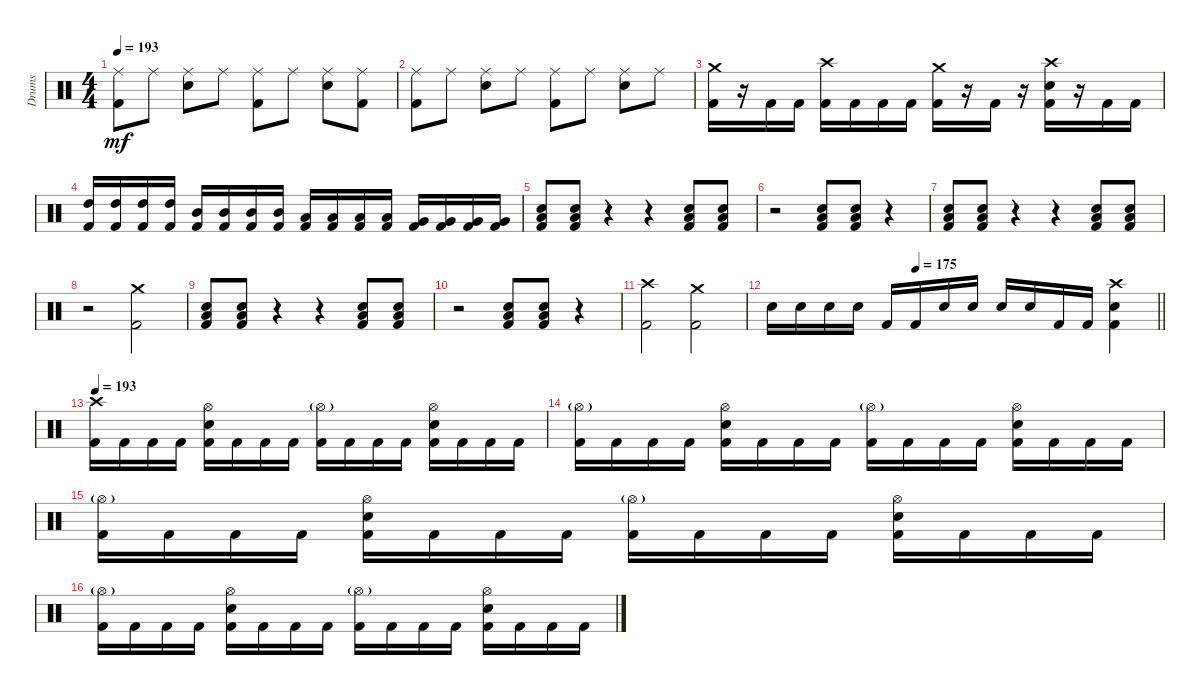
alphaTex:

\track ("Drums" "Drums") {instrument percussion}
\staff {score}
\articulation defaults
\ts (4 4)
\tempo 193
\clef neutral
\ks c
("Ride (middle)" "Kick (hit) 2").8{dy mf} "Ride (middle)".8 ("Ride (middle)" "Electric Snare (hit)").8 "Ride (middle)".8 ("Ride (middle)" "Kick (hit) 2").8 "Ride (middle)".8 ("Ride (middle)" "Electric Snare (hit)").8 ("Ride (middle)" "Kick (hit) 2").8 |
("Ride (middle)" "Kick (hit) 2").8 "Ride (middle)".8 ("Ride (middle)" "Electric Snare (hit)").8 "Ride (middle)".8 ("Ride (middle)" "Kick (hit) 2").8 "Ride (middle)".8 ("Ride (middle)" "Electric Snare (hit)").8 "Ride (middle)".8 |
("Crash medium (hit)" "Kick (hit) 2").16 r.16 "Kick (hit) 2".16 "Kick (hit) 2".16 ("Crash high (hit)" "Kick (hit) 2").16 "Kick (hit) 2".16 "Kick (hit) 2".16 "Kick (hit) 2".16 ("Crash medium (hit)" "Kick (hit) 2").16 r.16 "Kick (hit) 2".16 r.16 ("Crash high (hit)" "Electric Snare (hit)" "Kick (hit) 2").16 r.16 "Kick (hit) 2".16 "Kick (hit) 2".16 |
("High Tom (hit)" "Kick (hit) 2").16 ("High Tom (hit)" "Kick (hit) 2").16 ("High Tom (hit)" "Kick (hit) 2").16 ("High Tom (hit)" "Kick (hit) 2").16 ("Mid Tom (hit)" "Kick (hit) 2").16 ("Mid Tom (hit)" "Kick (hit) 2").16 ("Mid Tom (hit)" "Kick (hit) 2").16 ("Mid Tom (hit)" "Kick (hit) 2").16 ("Low Tom (hit)" "Kick (hit) 2").16 ("Low Tom (hit)" "Kick (hit) 2").16 ("Low Tom (hit)" "Kick (hit) 2").16 ("Low Tom (hit)" "Kick (hit) 2").16 ("Very Low Tom (hit)" "Kick (hit) 2").16 ("Very Low Tom (hit)" "Kick (hit) 2").16 ("Very Low Tom (hit)" "Kick (hit) 2").16 ("Very Low Tom (hit)" "Kick (hit) 2").16 |
("Low Tom (hit)" "Electric Snare (hit)" "Kick (hit) 2").8 ("Low Tom (hit)" "Electric Snare (hit)" "Kick (hit) 2").8 r.4 r.4 ("Low Tom (hit)" "Electric Snare (hit)" "Kick (hit) 2").8 ("Low Tom (hit)" "Electric Snare (hit)" "Kick (hit) 2").8 |
r.2 ("Low Tom (hit)" "Electric Snare (hit)" "Kick (hit) 2").8 ("Low Tom (hit)" "Electric Snare (hit)" "Kick (hit) 2").8 r.4 |
("Low Tom (hit)" "Electric Snare (hit)" "Kick (hit) 2").8 ("Low Tom (hit)" "Electric Snare (hit)" "Kick (hit) 2").8 r.4 r.4 ("Low Tom (hit)" "Electric Snare (hit)" "Kick (hit) 2").8 ("Low Tom (hit)" "Electric Snare (hit)" "Kick (hit) 2").8 |
r.2 ("Crash medium (hit)" "Kick (hit) 2").2 |
("Low Tom (hit)" "Electric Snare (hit)" "Kick (hit) 2").8 ("Low Tom (hit)" "Electric Snare (hit)" "Kick (hit) 2").8 r.4 r.4 ("Low Tom (hit)" "Electric Snare (hit)" "Kick (hit) 2").8 ("Low Tom (hit)" "Electric Snare (hit)" "Kick (hit) 2").8 |
r.2 ("Low Tom (hit)" "Electric Snare (hit)" "Kick (hit) 2").8 ("Low Tom (hit)" "Electric Snare (hit)" "Kick (hit) 2").8 r.4 |
("Crash high (hit)" "Kick (hit) 2").2 ("Crash medium (hit)" "Kick (hit) 2").2 |
\tempo (175 0.375)
\barLineRight lightlight "Electric Snare (hit)".16 "Electric Snare (hit)".16 "Electric Snare (hit)".16 "Electric Snare (hit)".16 "Kick (hit) 2".16 "Kick (hit) 2".16 "Electric Snare (hit)".16 "Electric Snare (hit)".16 "Electric Snare (hit)".16 "Electric Snare (hit)".16 "Kick (hit) 2".16 "Kick (hit) 2".16
("Crash high (hit)" "Electric Snare (hit)" "Kick (hit) 2").4 |
\tempo 193
("Crash high (hit)" "Kick (hit) 2").16 "Kick (hit) 2".16 "Kick (hit) 2".16 "Kick (hit) 2".16 ("Hi-Hat (open)" "Electric Snare (hit)" "Kick (hit) 2").16 "Kick (hit) 2".16 "Kick (hit) 2".16 "Kick (hit) 2".16 ("Hi-Hat (open)"{g} "Kick (hit) 2").16 "Kick (hit) 2".16 "Kick (hit) 2".16 "Kick (hit) 2".16 ("Hi-Hat (open)" "Electric Snare (hit)" "Kick (hit) 2").16 "Kick (hit) 2".16 "Kick (hit) 2".16 "Kick (hit) 2".16 |
("Hi-Hat (open)"{g} "Kick (hit) 2").16 "Kick (hit) 2".16 "Kick (hit) 2".16 "Kick (hit) 2".16 ("Hi-Hat (open)" "Electric Snare (hit)" "Kick (hit) 2").16 "Kick (hit) 2".16 "Kick (hit) 2".16 "Kick (hit) 2".16 ("Hi-Hat (open)"{g} "Kick (hit) 2").16 "Kick (hit) 2".16 "Kick (hit) 2".16 "Kick (hit) 2".16 ("Hi-Hat (open)" "Electric Snare (hit)" "Kick (hit) 2").16 "Kick (hit) 2".16 "Kick (hit) 2".16 "Kick (hit) 2".16 |
("Hi-Hat (open)"{g} "Kick (hit) 2").16 "Kick (hit) 2".16 "Kick (hit) 2".16 "Kick (hit) 2".16 ("Hi-Hat (open)" "Electric Snare (hit)" "Kick (hit) 2").16 "Kick (hit) 2".16 "Kick (hit) 2".16 "Kick (hit) 2".16 ("Hi-Hat (open)"{g} "Kick (hit) 2").16 "Kick (hit) 2".16 "Kick (hit) 2".16 "Kick (hit) 2".16 ("Hi-Hat (open)" "Electric Snare (hit)" "Kick (hit) 2").16 "Kick (hit) 2".16 "Kick (hit) 2".16 "Kick (hit) 2".16 |
("Hi-Hat (open)"{g} "Kick (hit) 2").16 "Kick (hit) 2".16 "Kick (hit) 2".16 "Kick (hit) 2".16 ("Hi-Hat (open)" "Electric Snare (hit)" "Kick (hit) 2").16 "Kick (hit) 2".16 "Kick (hit) 2".16 "Kick (hit) 2".16 ("Hi-Hat (open)"{g} "Kick (hit) 2").16 "Kick (hit) 2".16 "Kick (hit) 2".16 "Kick (hit) 2".16 ("Hi-Hat (open)" "Electric Snare (hit)" "Kick (hit) 2").16 "Kick (hit) 2".16 "Kick (hit) 2".16 "Kick (hit) 2".16
